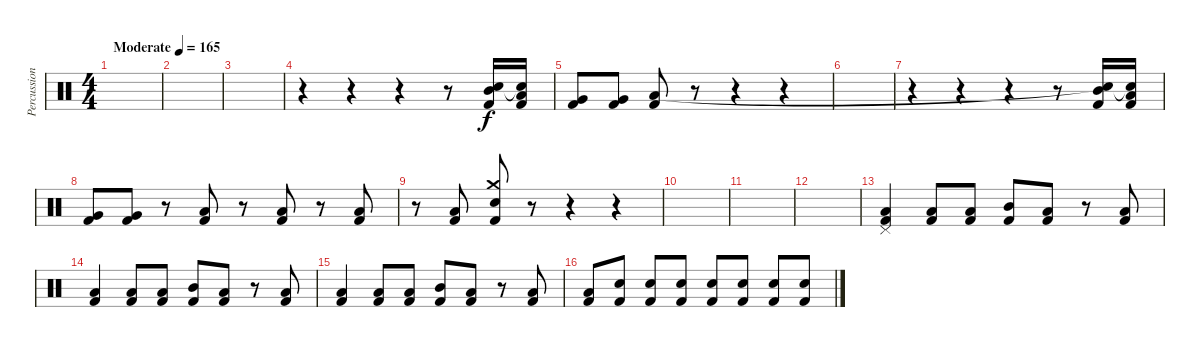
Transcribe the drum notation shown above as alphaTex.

\track ("Percussions" "Percussion") {instrument percussion}
\staff {score}
\articulation defaults
\ts (4 4)
\tempo (165 "Moderate")
\clef neutral
\ks c
|
|
|
r.4 r.4 r.4 r.8 ("Snare (hit)" "Mid Tom (hit)" "Kick (hit) 2").16 ("Snare (hit)"{t} "Low Tom (hit)" "Kick (hit) 2").16 |
("Very Low Tom (hit)" "Kick (hit) 2").8 ("Very Low Tom (hit)" "Kick (hit) 2").8 ("Low Floor Tom (hit)" "Kick (hit) 2").8 r.8 r.4 r.4 |
|
r.4 r.4 r.4 r.8 ("Snare (hit)"{t} "Mid Tom (hit)" "Kick (hit) 2").16 ("Snare (hit)"{t} "Low Tom (hit)" "Kick (hit) 2").16 |
("Very Low Tom (hit)" "Kick (hit) 2").8 ("Very Low Tom (hit)" "Kick (hit) 2").8 r.8 ("Low Floor Tom (hit)" "Kick (hit) 2").8 r.8 ("Low Floor Tom (hit)" "Kick (hit) 2").8 r.8 ("Low Floor Tom (hit)" "Kick (hit) 2").8 |
r.8 ("Low Floor Tom (hit)" "Kick (hit) 2").8 ("Crash medium (hit)" "Electric Snare (hit)" "Kick (hit) 2").8 r.8 r.4 r.4 |
|
|
|
("Pedal Hi-Hat (hit)" "Low Floor Tom (hit)" "Kick (hit) 2").4 ("Low Floor Tom (hit)" "Kick (hit) 2").8 ("Low Floor Tom (hit)" "Kick (hit) 2").8 ("Mid Tom (hit)" "Kick (hit) 2").8 ("Low Floor Tom (hit)" "Kick (hit) 2").8 r.8 ("Low Floor Tom (hit)" "Kick (hit) 2").8 |
("Low Floor Tom (hit)" "Kick (hit) 2").4 ("Low Floor Tom (hit)" "Kick (hit) 2").8 ("Low Floor Tom (hit)" "Kick (hit) 2").8 ("Mid Tom (hit)" "Kick (hit) 2").8 ("Low Floor Tom (hit)" "Kick (hit) 2").8 r.8 ("Low Floor Tom (hit)" "Kick (hit) 2").8 |
("Low Floor Tom (hit)" "Kick (hit) 2").4 ("Low Floor Tom (hit)" "Kick (hit) 2").8 ("Low Floor Tom (hit)" "Kick (hit) 2").8 ("Mid Tom (hit)" "Kick (hit) 2").8 ("Low Floor Tom (hit)" "Kick (hit) 2").8 r.8 ("Low Floor Tom (hit)" "Kick (hit) 2").8 |
("Low Floor Tom (hit)" "Kick (hit) 2").8 ("Electric Snare (hit)" "Kick (hit) 2").8 ("Electric Snare (hit)" "Kick (hit) 2").8 ("Electric Snare (hit)" "Kick (hit) 2").8 ("Electric Snare (hit)" "Kick (hit) 2").8 ("Electric Snare (hit)" "Kick (hit) 2").8 ("Electric Snare (hit)" "Kick (hit) 2").8 ("Electric Snare (hit)" "Kick (hit) 2").8
